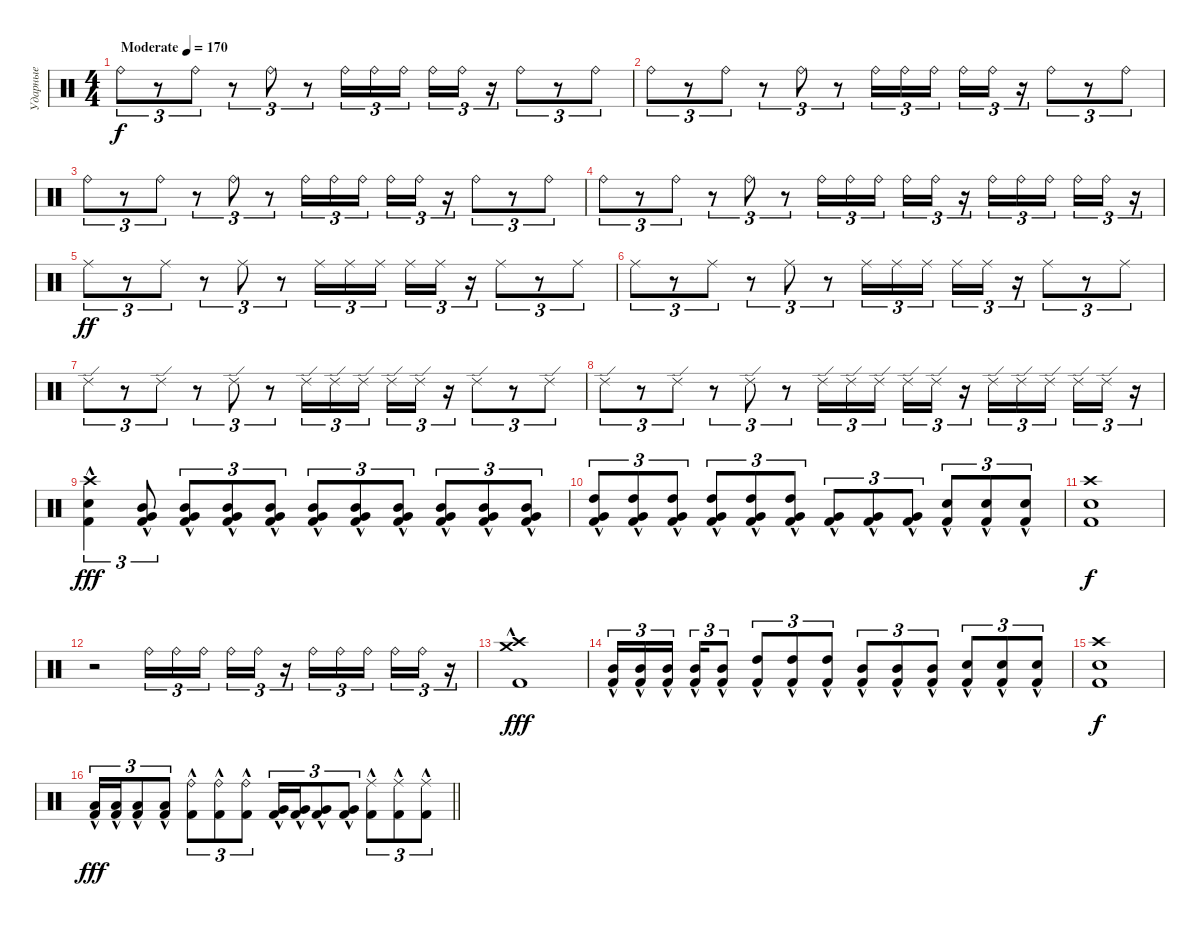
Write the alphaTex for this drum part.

\track ("Ударные" "Ударные") {instrument percussion}
\staff {score}
\articulation defaults
\ts (4 4)
\tempo (170 "Moderate")
\clef neutral
\ks c "Ride (bell)".8{tu (3 2) dy f}
r.8{tu (3 2)} "Ride (bell)".8{tu (3 2)} r.8{tu (3 2)} "Ride (bell)".8{tu (3 2)} r.8{tu (3 2)} "Ride (bell)".16{tu (3 2)} "Ride (bell)".16{tu (3 2)} "Ride (bell)".16{tu (3 2) beam splitsecondary} "Ride (bell)".16{tu (3 2)} "Ride (bell)".16{tu (3 2)} r.16{tu (3 2)} "Ride (bell)".8{tu (3 2)} r.8{tu (3 2)} "Ride (bell)".8{tu (3 2)} |
"Ride (bell)".8{tu (3 2)} r.8{tu (3 2)} "Ride (bell)".8{tu (3 2)} r.8{tu (3 2)} "Ride (bell)".8{tu (3 2)} r.8{tu (3 2)} "Ride (bell)".16{tu (3 2)} "Ride (bell)".16{tu (3 2)} "Ride (bell)".16{tu (3 2) beam splitsecondary} "Ride (bell)".16{tu (3 2)} "Ride (bell)".16{tu (3 2)} r.16{tu (3 2)} "Ride (bell)".8{tu (3 2)} r.8{tu (3 2)} "Ride (bell)".8{tu (3 2)} |
"Ride (bell)".8{tu (3 2)} r.8{tu (3 2)} "Ride (bell)".8{tu (3 2)} r.8{tu (3 2)} "Ride (bell)".8{tu (3 2)} r.8{tu (3 2)} "Ride (bell)".16{tu (3 2)} "Ride (bell)".16{tu (3 2)} "Ride (bell)".16{tu (3 2) beam splitsecondary} "Ride (bell)".16{tu (3 2)} "Ride (bell)".16{tu (3 2)} r.16{tu (3 2)} "Ride (bell)".8{tu (3 2)} r.8{tu (3 2)} "Ride (bell)".8{tu (3 2)} |
"Ride (bell)".8{tu (3 2)} r.8{tu (3 2)} "Ride (bell)".8{tu (3 2)} r.8{tu (3 2)} "Ride (bell)".8{tu (3 2)} r.8{tu (3 2)} "Ride (bell)".16{tu (3 2)} "Ride (bell)".16{tu (3 2)} "Ride (bell)".16{tu (3 2) beam splitsecondary} "Ride (bell)".16{tu (3 2)} "Ride (bell)".16{tu (3 2)} r.16{tu (3 2)} "Ride (bell)".16{tu (3 2)} "Ride (bell)".16{tu (3 2)} "Ride (bell)".16{tu (3 2) beam splitsecondary} "Ride (bell)".16{tu (3 2)} "Ride (bell)".16{tu (3 2)} r.16{tu (3 2)} |
"Ride (middle)".8{tu (3 2) dy ff} r.8{tu (3 2)} "Ride (middle)".8{tu (3 2)} r.8{tu (3 2)} "Ride (middle)".8{tu (3 2)} r.8{tu (3 2)} "Ride (middle)".16{tu (3 2)} "Ride (middle)".16{tu (3 2)} "Ride (middle)".16{tu (3 2) beam splitsecondary} "Ride (middle)".16{tu (3 2)} "Ride (middle)".16{tu (3 2)} r.16{tu (3 2)} "Ride (middle)".8{tu (3 2)} r.8{tu (3 2)} "Ride (middle)".8{tu (3 2)} |
"Ride (middle)".8{tu (3 2)} r.8{tu (3 2)} "Ride (middle)".8{tu (3 2)} r.8{tu (3 2)} "Ride (middle)".8{tu (3 2)} r.8{tu (3 2)} "Ride (middle)".16{tu (3 2)} "Ride (middle)".16{tu (3 2)} "Ride (middle)".16{tu (3 2) beam splitsecondary} "Ride (middle)".16{tu (3 2)} "Ride (middle)".16{tu (3 2)} r.16{tu (3 2)} "Ride (middle)".8{tu (3 2)} r.8{tu (3 2)} "Ride (middle)".8{tu (3 2)} |
"Ride (edge) 2".8{tu (3 2)} r.8{tu (3 2)} "Ride (edge) 2".8{tu (3 2)} r.8{tu (3 2)} "Ride (edge) 2".8{tu (3 2)} r.8{tu (3 2)} "Ride (edge) 2".16{tu (3 2)} "Ride (edge) 2".16{tu (3 2)} "Ride (edge) 2".16{tu (3 2) beam splitsecondary} "Ride (edge) 2".16{tu (3 2)} "Ride (edge) 2".16{tu (3 2)} r.16{tu (3 2)} "Ride (edge) 2".8{tu (3 2)} r.8{tu (3 2)} "Ride (edge) 2".8{tu (3 2)} |
"Ride (edge) 2".8{tu (3 2)} r.8{tu (3 2)} "Ride (edge) 2".8{tu (3 2)} r.8{tu (3 2)} "Ride (edge) 2".8{tu (3 2)} r.8{tu (3 2)} "Ride (edge) 2".16{tu (3 2)} "Ride (edge) 2".16{tu (3 2)} "Ride (edge) 2".16{tu (3 2) beam splitsecondary} "Ride (edge) 2".16{tu (3 2)} "Ride (edge) 2".16{tu (3 2)} r.16{tu (3 2)} "Ride (edge) 2".16{tu (3 2)} "Ride (edge) 2".16{tu (3 2)} "Ride (edge) 2".16{tu (3 2) beam splitsecondary} "Ride (edge) 2".16{tu (3 2)} "Ride (edge) 2".16{tu (3 2)} r.16{tu (3 2)} |
("Crash high (hit)"{hac} "Kick (hit) 2"{hac} "Snare (hit) 2").4{tu (3 2) dy fff} ("Very Low Tom (hit)"{hac} "Kick (hit) 2"{hac} "Mid Tom (hit)"{hac}).8{tu (3 2) volume 0} ("Very Low Tom (hit)"{hac} "Kick (hit) 2"{hac} "Mid Tom (hit)"{hac}).8{tu (3 2) volume 16} ("Very Low Tom (hit)"{hac} "Kick (hit) 2"{hac} "Mid Tom (hit)"{hac}).8{tu (3 2)} ("Very Low Tom (hit)"{hac} "Kick (hit) 2"{hac} "Mid Tom (hit)"{hac}).8{tu (3 2)} ("Very Low Tom (hit)"{hac} "Kick (hit) 2"{hac} "Mid Tom (hit)"{hac}).8{tu (3 2)} ("Very Low Tom (hit)"{hac} "Kick (hit) 2"{hac} "Mid Tom (hit)"{hac}).8{tu (3 2)} ("Very Low Tom (hit)"{hac} "Kick (hit) 2"{hac} "Mid Tom (hit)"{hac}).8{tu (3 2)} ("Very Low Tom (hit)"{hac} "Kick (hit) 2"{hac} "Mid Tom (hit)"{hac}).8{tu (3 2)} ("Very Low Tom (hit)"{hac} "Kick (hit) 2"{hac} "Mid Tom (hit)"{hac}).8{tu (3 2)} ("Very Low Tom (hit)"{hac} "Kick (hit) 2"{hac} "Mid Tom (hit)"{hac}).8{tu (3 2)} |
("Very Low Tom (hit)"{hac} "Kick (hit) 2"{hac} "High Tom (hit)"{hac}).8{tu (3 2)} ("Very Low Tom (hit)"{hac} "Kick (hit) 2"{hac} "High Tom (hit)"{hac}).8{tu (3 2)} ("Very Low Tom (hit)"{hac} "Kick (hit) 2"{hac} "High Tom (hit)"{hac}).8{tu (3 2)} ("Very Low Tom (hit)"{hac} "Kick (hit) 2"{hac} "High Tom (hit)"{hac}).8{tu (3 2)} ("Very Low Tom (hit)"{hac} "Kick (hit) 2"{hac} "High Tom (hit)"{hac}).8{tu (3 2)} ("Very Low Tom (hit)"{hac} "Kick (hit) 2"{hac} "High Tom (hit)"{hac}).8{tu (3 2)} ("Very Low Tom (hit)"{hac} "Kick (hit) 2"{hac}).8{tu (3 2)} ("Very Low Tom (hit)"{hac} "Kick (hit) 2"{hac}).8{tu (3 2)} ("Very Low Tom (hit)"{hac} "Kick (hit) 2"{hac}).8{tu (3 2)} ("Kick (hit) 2"{hac} "Snare (hit) 2").8{tu (3 2)} ("Kick (hit) 2"{hac} "Snare (hit) 2").8{tu (3 2)} ("Kick (hit) 2"{hac} "Snare (hit) 2").8{tu (3 2)} |
("Crash high (hit)" "Kick (hit) 2" "Snare (hit) 2").1{dy f volume 16} |
r.2 "Ride (bell)".16{tu (3 2)} "Ride (bell)".16{tu (3 2)} "Ride (bell)".16{tu (3 2) beam splitsecondary} "Ride (bell)".16{tu (3 2)} "Ride (bell)".16{tu (3 2)} r.16{tu (3 2)} "Ride (bell)".16{tu (3 2)} "Ride (bell)".16{tu (3 2)} "Ride (bell)".16{tu (3 2) beam splitsecondary} "Ride (bell)".16{tu (3 2)} "Ride (bell)".16{tu (3 2)} r.16{tu (3 2)} |
("Crash high (hit)"{hac} "Kick (hit) 2"{hac} "Crash medium (hit)"{hac}).1{dy fff} |
("Mid Tom (hit)"{hac} "Kick (hit) 2"{hac}).16{tu (3 2)} ("Mid Tom (hit)"{hac} "Kick (hit) 2"{hac}).16{tu (3 2)} ("Mid Tom (hit)"{hac} "Kick (hit) 2"{hac}).16{tu (3 2) beam splitsecondary} ("Mid Tom (hit)"{hac} "Kick (hit) 2"{hac}).16{tu (3 2)} ("Mid Tom (hit)"{hac} "Kick (hit) 2"{hac}).8{tu (3 2)} ("High Tom (hit)"{hac} "Kick (hit) 2"{hac}).8{tu (3 2)} ("High Tom (hit)"{hac} "Kick (hit) 2"{hac}).8{tu (3 2)} ("High Tom (hit)"{hac} "Kick (hit) 2"{hac}).8{tu (3 2)} ("Mid Tom (hit)"{hac} "Kick (hit) 2"{hac}).8{tu (3 2)} ("Mid Tom (hit)"{hac} "Kick (hit) 2"{hac}).8{tu (3 2)} ("Mid Tom (hit)"{hac} "Kick (hit) 2"{hac}).8{tu (3 2)} ("Snare (hit) 2" "Kick (hit) 2"{hac}).8{tu (3 2)} ("Snare (hit) 2" "Kick (hit) 2"{hac}).8{tu (3 2)} ("Snare (hit) 2" "Kick (hit) 2"{hac}).8{tu (3 2)} |
("Crash high (hit)" "Kick (hit) 2" "Snare (hit) 2").1{dy f} |
\barLineRight lightlight
("Kick (hit) 2"{hac} "Low Tom (hit)"{hac}).16{tu (3 2) dy fff} ("Kick (hit) 2"{hac} "Low Tom (hit)"{hac}).16{tu (3 2)} ("Kick (hit) 2"{hac} "Low Tom (hit)"{hac}).8{tu (3 2)} ("Kick (hit) 2"{hac} "Low Tom (hit)"{hac}).8{tu (3 2)} ("Ride (bell)"{hac} "Kick (hit) 2"{hac}).8{tu (3 2)} ("Ride (bell)"{hac} "Kick (hit) 2"{hac}).8{tu (3 2)} ("Ride (bell)"{hac} "Kick (hit) 2"{hac}).8{tu (3 2)} ("Kick (hit) 2"{hac} "Very Low Tom (hit)"{hac}).16{tu (3 2)} ("Kick (hit) 2"{hac} "Very Low Tom (hit)"{hac}).16{tu (3 2)} ("Kick (hit) 2"{hac} "Very Low Tom (hit)"{hac}).8{tu (3 2)} ("Kick (hit) 2"{hac} "Very Low Tom (hit)"{hac}).8{tu (3 2)} ("Ride (middle)"{hac} "Kick (hit) 2"{hac}).8{tu (3 2)} ("Ride (middle)"{hac} "Kick (hit) 2"{hac}).8{tu (3 2)} ("Ride (middle)"{hac} "Kick (hit) 2"{hac}).8{tu (3 2)}
